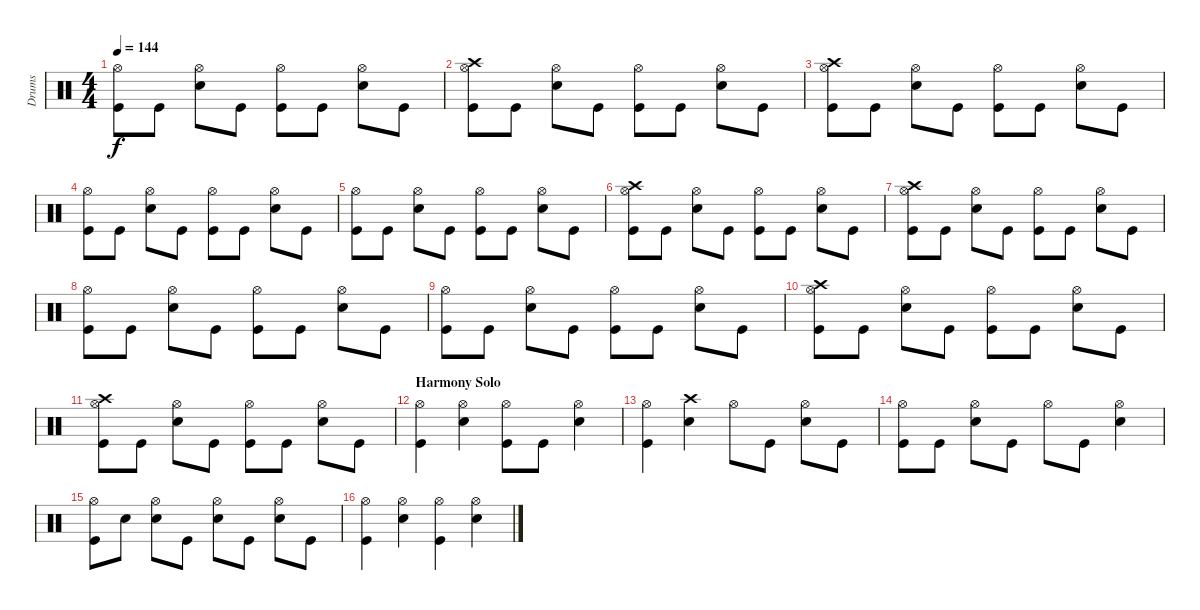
\track ("Drums" "Drums") {instrument percussion}
\staff {score}
\articulation defaults
\ts (4 4)
\tempo 144
\clef neutral
\ks c
("Hi-Hat (open)" "Kick (hit)").8{dy f} "Kick (hit)".8 ("Hi-Hat (open)" "Snare (hit) 2").8 "Kick (hit)".8 ("Hi-Hat (open)" "Kick (hit)").8 "Kick (hit)".8 ("Hi-Hat (open)" "Snare (hit) 2").8 "Kick (hit)".8 |
("Hi-Hat (open)" "Crash high (hit)" "Kick (hit)").8 "Kick (hit)".8 ("Hi-Hat (open)" "Snare (hit) 2").8 "Kick (hit)".8 ("Hi-Hat (open)" "Kick (hit)").8 "Kick (hit)".8 ("Hi-Hat (open)" "Snare (hit) 2").8 "Kick (hit)".8 |
("Hi-Hat (open)" "Crash high (hit)" "Kick (hit)").8 "Kick (hit)".8 ("Hi-Hat (open)" "Snare (hit) 2").8 "Kick (hit)".8 ("Hi-Hat (open)" "Kick (hit)").8 "Kick (hit)".8 ("Hi-Hat (open)" "Snare (hit) 2").8 "Kick (hit)".8 |
("Hi-Hat (open)" "Kick (hit)").8 "Kick (hit)".8 ("Hi-Hat (open)" "Snare (hit) 2").8 "Kick (hit)".8 ("Hi-Hat (open)" "Kick (hit)").8 "Kick (hit)".8 ("Hi-Hat (open)" "Snare (hit) 2").8 "Kick (hit)".8 |
("Hi-Hat (open)" "Kick (hit)").8 "Kick (hit)".8 ("Hi-Hat (open)" "Snare (hit) 2").8 "Kick (hit)".8 ("Hi-Hat (open)" "Kick (hit)").8 "Kick (hit)".8 ("Hi-Hat (open)" "Snare (hit) 2").8 "Kick (hit)".8 |
("Hi-Hat (open)" "Crash high (hit)" "Kick (hit)").8 "Kick (hit)".8 ("Hi-Hat (open)" "Snare (hit) 2").8 "Kick (hit)".8 ("Hi-Hat (open)" "Kick (hit)").8 "Kick (hit)".8 ("Hi-Hat (open)" "Snare (hit) 2").8 "Kick (hit)".8 |
("Hi-Hat (open)" "Crash high (hit)" "Kick (hit)").8 "Kick (hit)".8 ("Hi-Hat (open)" "Snare (hit) 2").8 "Kick (hit)".8 ("Hi-Hat (open)" "Kick (hit)").8 "Kick (hit)".8 ("Hi-Hat (open)" "Snare (hit) 2").8 "Kick (hit)".8 |
("Hi-Hat (open)" "Kick (hit)").8 "Kick (hit)".8 ("Hi-Hat (open)" "Snare (hit) 2").8 "Kick (hit)".8 ("Hi-Hat (open)" "Kick (hit)").8 "Kick (hit)".8 ("Hi-Hat (open)" "Snare (hit) 2").8 "Kick (hit)".8 |
("Hi-Hat (open)" "Kick (hit)").8 "Kick (hit)".8 ("Hi-Hat (open)" "Snare (hit) 2").8 "Kick (hit)".8 ("Hi-Hat (open)" "Kick (hit)").8 "Kick (hit)".8 ("Hi-Hat (open)" "Snare (hit) 2").8 "Kick (hit)".8 |
("Hi-Hat (open)" "Crash high (hit)" "Kick (hit)").8 "Kick (hit)".8 ("Hi-Hat (open)" "Snare (hit) 2").8 "Kick (hit)".8 ("Hi-Hat (open)" "Kick (hit)").8 "Kick (hit)".8 ("Hi-Hat (open)" "Snare (hit) 2").8 "Kick (hit)".8 |
("Hi-Hat (open)" "Crash high (hit)" "Kick (hit)").8 "Kick (hit)".8 ("Hi-Hat (open)" "Snare (hit) 2").8 "Kick (hit)".8 ("Hi-Hat (open)" "Kick (hit)").8 "Kick (hit)".8 ("Hi-Hat (open)" "Snare (hit) 2").8 "Kick (hit)".8 |
\section ("" "Harmony Solo")
("Hi-Hat (open)" "Kick (hit)").4 ("Hi-Hat (open)" "Snare (hit) 2").4 ("Hi-Hat (open)" "Kick (hit)").8 "Kick (hit)".8 ("Hi-Hat (open)" "Snare (hit) 2").4 |
("Hi-Hat (open)" "Kick (hit)").4 ("Crash high (hit)" "Snare (hit) 2").4 "Hi-Hat (open)".8 "Kick (hit)".8 ("Hi-Hat (open)" "Snare (hit) 2").8 "Kick (hit)".8 |
("Hi-Hat (open)" "Kick (hit)").8 "Kick (hit)".8 ("Hi-Hat (open)" "Snare (hit) 2").8 "Kick (hit)".8 "Hi-Hat (open)".8 "Kick (hit)".8 ("Hi-Hat (open)" "Snare (hit) 2").4 |
("Hi-Hat (open)" "Kick (hit)").8 "Snare (hit) 2".8 ("Hi-Hat (open)" "Snare (hit) 2").8 "Kick (hit)".8 ("Hi-Hat (open)" "Snare (hit) 2").8 "Kick (hit)".8 ("Hi-Hat (open)" "Snare (hit) 2").8 "Kick (hit)".8 |
("Hi-Hat (open)" "Kick (hit)").4 ("Hi-Hat (open)" "Snare (hit) 2").4 ("Hi-Hat (open)" "Kick (hit)").4 ("Hi-Hat (open)" "Snare (hit) 2").4
